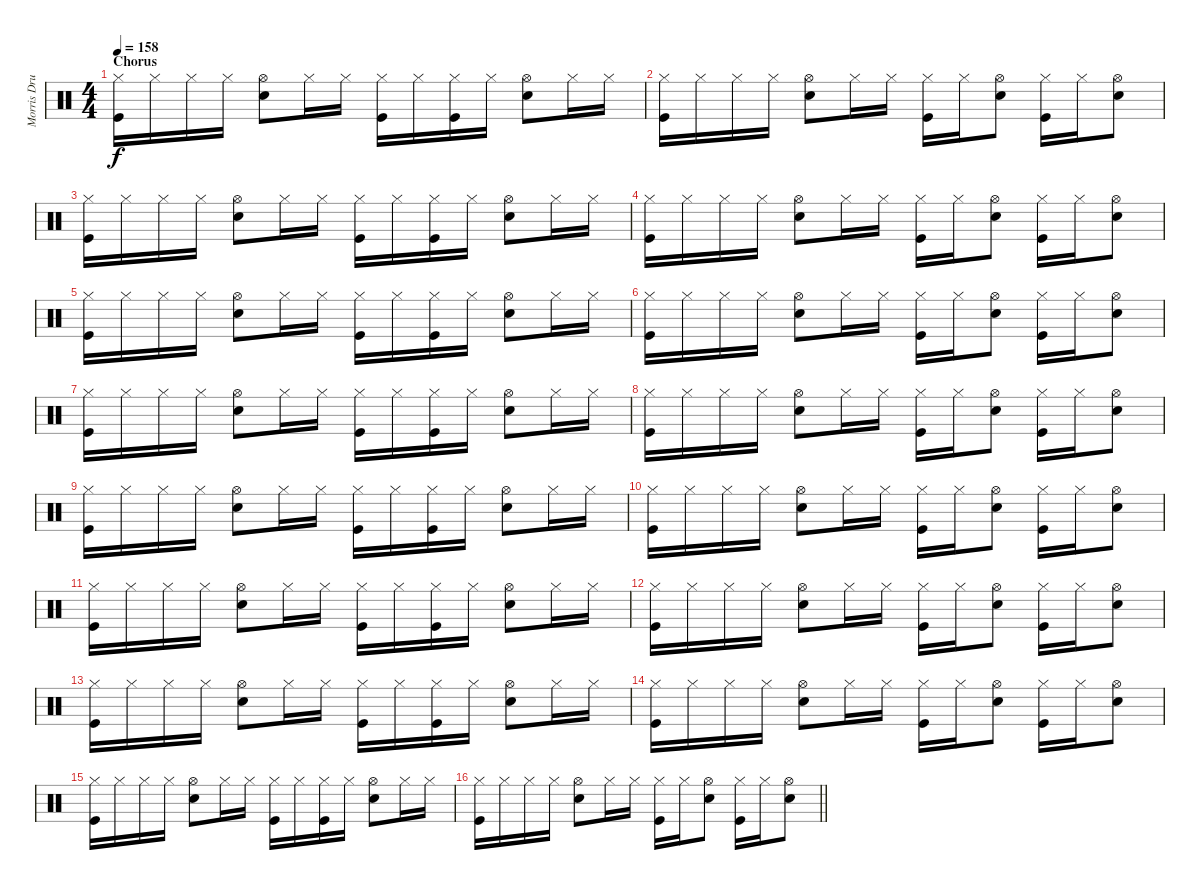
\track ("Morris Drums" "Morris Dru") {instrument percussion}
\staff {score}
\articulation defaults
\ts (4 4)
\section ("" "Chorus")
\tempo 158
\clef neutral
\ks c
("Hi-Hat (closed)" "Kick (hit)").16{dy f} "Hi-Hat (closed)".16 "Hi-Hat (closed)".16 "Hi-Hat (closed)".16 ("Hi-Hat (open)" "Snare (hit) 2").8 "Hi-Hat (closed)".16 "Hi-Hat (closed)".16 ("Hi-Hat (closed)" "Kick (hit)").16 "Hi-Hat (closed)".16 ("Hi-Hat (closed)" "Kick (hit)").16 "Hi-Hat (closed)".16 ("Hi-Hat (open)" "Snare (hit) 2").8 "Hi-Hat (closed)".16 "Hi-Hat (closed)".16 |
("Hi-Hat (closed)" "Kick (hit)").16 "Hi-Hat (closed)".16 "Hi-Hat (closed)".16 "Hi-Hat (closed)".16 ("Hi-Hat (open)" "Snare (hit) 2").8 "Hi-Hat (closed)".16 "Hi-Hat (closed)".16 ("Hi-Hat (closed)" "Kick (hit)").16 "Hi-Hat (closed)".16 ("Hi-Hat (open)" "Snare (hit) 2").8 ("Hi-Hat (closed)" "Kick (hit)").16 "Hi-Hat (closed)".16 ("Hi-Hat (open)" "Snare (hit) 2").8 |
("Hi-Hat (closed)" "Kick (hit)").16 "Hi-Hat (closed)".16 "Hi-Hat (closed)".16 "Hi-Hat (closed)".16 ("Hi-Hat (open)" "Snare (hit) 2").8 "Hi-Hat (closed)".16 "Hi-Hat (closed)".16 ("Hi-Hat (closed)" "Kick (hit)").16 "Hi-Hat (closed)".16 ("Hi-Hat (closed)" "Kick (hit)").16 "Hi-Hat (closed)".16 ("Hi-Hat (open)" "Snare (hit) 2").8 "Hi-Hat (closed)".16 "Hi-Hat (closed)".16 |
("Hi-Hat (closed)" "Kick (hit)").16 "Hi-Hat (closed)".16 "Hi-Hat (closed)".16 "Hi-Hat (closed)".16 ("Hi-Hat (open)" "Snare (hit) 2").8 "Hi-Hat (closed)".16 "Hi-Hat (closed)".16 ("Hi-Hat (closed)" "Kick (hit)").16 "Hi-Hat (closed)".16 ("Hi-Hat (open)" "Snare (hit) 2").8 ("Hi-Hat (closed)" "Kick (hit)").16 "Hi-Hat (closed)".16 ("Hi-Hat (open)" "Snare (hit) 2").8 |
("Hi-Hat (closed)" "Kick (hit)").16 "Hi-Hat (closed)".16 "Hi-Hat (closed)".16 "Hi-Hat (closed)".16 ("Hi-Hat (open)" "Snare (hit) 2").8 "Hi-Hat (closed)".16 "Hi-Hat (closed)".16 ("Hi-Hat (closed)" "Kick (hit)").16 "Hi-Hat (closed)".16 ("Hi-Hat (closed)" "Kick (hit)").16 "Hi-Hat (closed)".16 ("Hi-Hat (open)" "Snare (hit) 2").8 "Hi-Hat (closed)".16 "Hi-Hat (closed)".16 |
("Hi-Hat (closed)" "Kick (hit)").16 "Hi-Hat (closed)".16 "Hi-Hat (closed)".16 "Hi-Hat (closed)".16 ("Hi-Hat (open)" "Snare (hit) 2").8 "Hi-Hat (closed)".16 "Hi-Hat (closed)".16 ("Hi-Hat (closed)" "Kick (hit)").16 "Hi-Hat (closed)".16 ("Hi-Hat (open)" "Snare (hit) 2").8 ("Hi-Hat (closed)" "Kick (hit)").16 "Hi-Hat (closed)".16 ("Hi-Hat (open)" "Snare (hit) 2").8 |
("Hi-Hat (closed)" "Kick (hit)").16 "Hi-Hat (closed)".16 "Hi-Hat (closed)".16 "Hi-Hat (closed)".16 ("Hi-Hat (open)" "Snare (hit) 2").8 "Hi-Hat (closed)".16 "Hi-Hat (closed)".16 ("Hi-Hat (closed)" "Kick (hit)").16 "Hi-Hat (closed)".16 ("Hi-Hat (closed)" "Kick (hit)").16 "Hi-Hat (closed)".16 ("Hi-Hat (open)" "Snare (hit) 2").8 "Hi-Hat (closed)".16 "Hi-Hat (closed)".16 |
("Hi-Hat (closed)" "Kick (hit)").16 "Hi-Hat (closed)".16 "Hi-Hat (closed)".16 "Hi-Hat (closed)".16 ("Hi-Hat (open)" "Snare (hit) 2").8 "Hi-Hat (closed)".16 "Hi-Hat (closed)".16 ("Hi-Hat (closed)" "Kick (hit)").16 "Hi-Hat (closed)".16 ("Hi-Hat (open)" "Snare (hit) 2").8 ("Hi-Hat (closed)" "Kick (hit)").16 "Hi-Hat (closed)".16 ("Hi-Hat (open)" "Snare (hit) 2").8 |
("Hi-Hat (closed)" "Kick (hit)").16 "Hi-Hat (closed)".16 "Hi-Hat (closed)".16 "Hi-Hat (closed)".16 ("Hi-Hat (open)" "Snare (hit) 2").8 "Hi-Hat (closed)".16 "Hi-Hat (closed)".16 ("Hi-Hat (closed)" "Kick (hit)").16 "Hi-Hat (closed)".16 ("Hi-Hat (closed)" "Kick (hit)").16 "Hi-Hat (closed)".16 ("Hi-Hat (open)" "Snare (hit) 2").8 "Hi-Hat (closed)".16 "Hi-Hat (closed)".16 |
("Hi-Hat (closed)" "Kick (hit)").16 "Hi-Hat (closed)".16 "Hi-Hat (closed)".16 "Hi-Hat (closed)".16 ("Hi-Hat (open)" "Snare (hit) 2").8 "Hi-Hat (closed)".16 "Hi-Hat (closed)".16 ("Hi-Hat (closed)" "Kick (hit)").16 "Hi-Hat (closed)".16 ("Hi-Hat (open)" "Snare (hit) 2").8 ("Hi-Hat (closed)" "Kick (hit)").16 "Hi-Hat (closed)".16 ("Hi-Hat (open)" "Snare (hit) 2").8 |
("Hi-Hat (closed)" "Kick (hit)").16 "Hi-Hat (closed)".16 "Hi-Hat (closed)".16 "Hi-Hat (closed)".16 ("Hi-Hat (open)" "Snare (hit) 2").8 "Hi-Hat (closed)".16 "Hi-Hat (closed)".16 ("Hi-Hat (closed)" "Kick (hit)").16 "Hi-Hat (closed)".16 ("Hi-Hat (closed)" "Kick (hit)").16 "Hi-Hat (closed)".16 ("Hi-Hat (open)" "Snare (hit) 2").8 "Hi-Hat (closed)".16 "Hi-Hat (closed)".16 |
("Hi-Hat (closed)" "Kick (hit)").16 "Hi-Hat (closed)".16 "Hi-Hat (closed)".16 "Hi-Hat (closed)".16 ("Hi-Hat (open)" "Snare (hit) 2").8 "Hi-Hat (closed)".16 "Hi-Hat (closed)".16 ("Hi-Hat (closed)" "Kick (hit)").16 "Hi-Hat (closed)".16 ("Hi-Hat (open)" "Snare (hit) 2").8 ("Hi-Hat (closed)" "Kick (hit)").16 "Hi-Hat (closed)".16 ("Hi-Hat (open)" "Snare (hit) 2").8 |
("Hi-Hat (closed)" "Kick (hit)").16 "Hi-Hat (closed)".16 "Hi-Hat (closed)".16 "Hi-Hat (closed)".16 ("Hi-Hat (open)" "Snare (hit) 2").8 "Hi-Hat (closed)".16 "Hi-Hat (closed)".16 ("Hi-Hat (closed)" "Kick (hit)").16 "Hi-Hat (closed)".16 ("Hi-Hat (closed)" "Kick (hit)").16 "Hi-Hat (closed)".16 ("Hi-Hat (open)" "Snare (hit) 2").8 "Hi-Hat (closed)".16 "Hi-Hat (closed)".16 |
("Hi-Hat (closed)" "Kick (hit)").16 "Hi-Hat (closed)".16 "Hi-Hat (closed)".16 "Hi-Hat (closed)".16 ("Hi-Hat (open)" "Snare (hit) 2").8 "Hi-Hat (closed)".16 "Hi-Hat (closed)".16 ("Hi-Hat (closed)" "Kick (hit)").16 "Hi-Hat (closed)".16 ("Hi-Hat (open)" "Snare (hit) 2").8 ("Hi-Hat (closed)" "Kick (hit)").16 "Hi-Hat (closed)".16 ("Hi-Hat (open)" "Snare (hit) 2").8 |
("Hi-Hat (closed)" "Kick (hit)").16 "Hi-Hat (closed)".16 "Hi-Hat (closed)".16 "Hi-Hat (closed)".16 ("Hi-Hat (open)" "Snare (hit) 2").8 "Hi-Hat (closed)".16 "Hi-Hat (closed)".16 ("Hi-Hat (closed)" "Kick (hit)").16 "Hi-Hat (closed)".16 ("Hi-Hat (closed)" "Kick (hit)").16 "Hi-Hat (closed)".16 ("Hi-Hat (open)" "Snare (hit) 2").8 "Hi-Hat (closed)".16 "Hi-Hat (closed)".16 |
\barLineRight lightlight
("Hi-Hat (closed)" "Kick (hit)").16 "Hi-Hat (closed)".16 "Hi-Hat (closed)".16 "Hi-Hat (closed)".16 ("Hi-Hat (open)" "Snare (hit) 2").8 "Hi-Hat (closed)".16 "Hi-Hat (closed)".16 ("Hi-Hat (closed)" "Kick (hit)").16 "Hi-Hat (closed)".16 ("Hi-Hat (open)" "Snare (hit) 2").8 ("Hi-Hat (closed)" "Kick (hit)").16 "Hi-Hat (closed)".16 ("Hi-Hat (open)" "Snare (hit) 2").8
